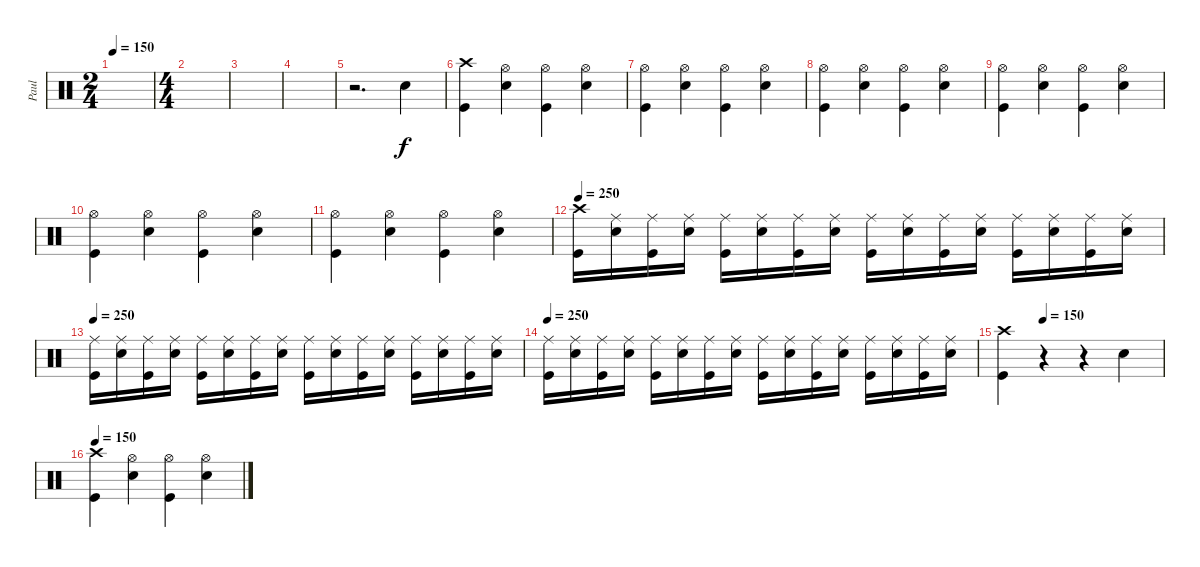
\track ("Paul" "Paul") {instrument percussion}
\staff {score}
\articulation defaults
\ts (2 4)
\tempo 150
\clef neutral
\ks c
|
\ts (4 4)
|
|
|
r.2{d} "Electric Snare (hit)".4 |
("Crash high (hit)" "Kick (hit)").4 ("Hi-Hat (open)" "Electric Snare (hit)").4 ("Hi-Hat (open)" "Kick (hit)").4 ("Hi-Hat (open)" "Electric Snare (hit)").4 |
("Hi-Hat (open)" "Kick (hit)").4 ("Hi-Hat (open)" "Electric Snare (hit)").4 ("Hi-Hat (open)" "Kick (hit)").4 ("Hi-Hat (open)" "Electric Snare (hit)").4 |
("Hi-Hat (open)" "Kick (hit)").4 ("Hi-Hat (open)" "Electric Snare (hit)").4 ("Hi-Hat (open)" "Kick (hit)").4 ("Hi-Hat (open)" "Electric Snare (hit)").4 |
("Hi-Hat (open)" "Kick (hit)").4 ("Hi-Hat (open)" "Electric Snare (hit)").4 ("Hi-Hat (open)" "Kick (hit)").4 ("Hi-Hat (open)" "Electric Snare (hit)").4 |
("Hi-Hat (open)" "Kick (hit)").4 ("Hi-Hat (open)" "Electric Snare (hit)").4 ("Hi-Hat (open)" "Kick (hit)").4 ("Hi-Hat (open)" "Electric Snare (hit)").4 |
("Hi-Hat (open)" "Kick (hit)").4 ("Hi-Hat (open)" "Electric Snare (hit)").4 ("Hi-Hat (open)" "Kick (hit)").4 ("Hi-Hat (open)" "Electric Snare (hit)").4 |
\tempo 250
("Crash high (hit)" "Kick (hit)").16 ("Ride (middle)" "Snare (hit) 2").16 ("Ride (middle)" "Kick (hit)").16 ("Ride (middle)" "Snare (hit) 2").16 ("Ride (middle)" "Kick (hit)").16 ("Ride (middle)" "Snare (hit) 2").16 ("Ride (middle)" "Kick (hit)").16 ("Ride (middle)" "Snare (hit) 2").16 ("Ride (middle)" "Kick (hit)").16 ("Ride (middle)" "Snare (hit) 2").16 ("Ride (middle)" "Kick (hit)").16 ("Ride (middle)" "Snare (hit) 2").16 ("Ride (middle)" "Kick (hit)").16 ("Ride (middle)" "Snare (hit) 2").16 ("Ride (middle)" "Kick (hit)").16 ("Ride (middle)" "Snare (hit) 2").16 |
\tempo 250
("Ride (middle)" "Kick (hit)").16 ("Ride (middle)" "Snare (hit) 2").16 ("Ride (middle)" "Kick (hit)").16 ("Ride (middle)" "Snare (hit) 2").16 ("Ride (middle)" "Kick (hit)").16 ("Ride (middle)" "Snare (hit) 2").16 ("Ride (middle)" "Kick (hit)").16 ("Ride (middle)" "Snare (hit) 2").16 ("Ride (middle)" "Kick (hit)").16 ("Ride (middle)" "Snare (hit) 2").16 ("Ride (middle)" "Kick (hit)").16 ("Ride (middle)" "Snare (hit) 2").16 ("Ride (middle)" "Kick (hit)").16 ("Ride (middle)" "Snare (hit) 2").16 ("Ride (middle)" "Kick (hit)").16 ("Ride (middle)" "Snare (hit) 2").16 |
\tempo 250
("Ride (middle)" "Kick (hit)").16 ("Ride (middle)" "Snare (hit) 2").16 ("Ride (middle)" "Kick (hit)").16 ("Ride (middle)" "Snare (hit) 2").16 ("Ride (middle)" "Kick (hit)").16 ("Ride (middle)" "Snare (hit) 2").16 ("Ride (middle)" "Kick (hit)").16 ("Ride (middle)" "Snare (hit) 2").16 ("Ride (middle)" "Kick (hit)").16 ("Ride (middle)" "Snare (hit) 2").16 ("Ride (middle)" "Kick (hit)").16 ("Ride (middle)" "Snare (hit) 2").16 ("Ride (middle)" "Kick (hit)").16 ("Ride (middle)" "Snare (hit) 2").16 ("Ride (middle)" "Kick (hit)").16 ("Ride (middle)" "Snare (hit) 2").16 |
\tempo (150 0.25)
("Crash high (hit)" "Kick (hit)").4 r.4 r.4 "Snare (hit) 2".4 |
\tempo 150
("Crash high (hit)" "Kick (hit)").4 ("Hi-Hat (open)" "Electric Snare (hit)").4 ("Hi-Hat (open)" "Kick (hit)").4 ("Hi-Hat (open)" "Electric Snare (hit)").4
